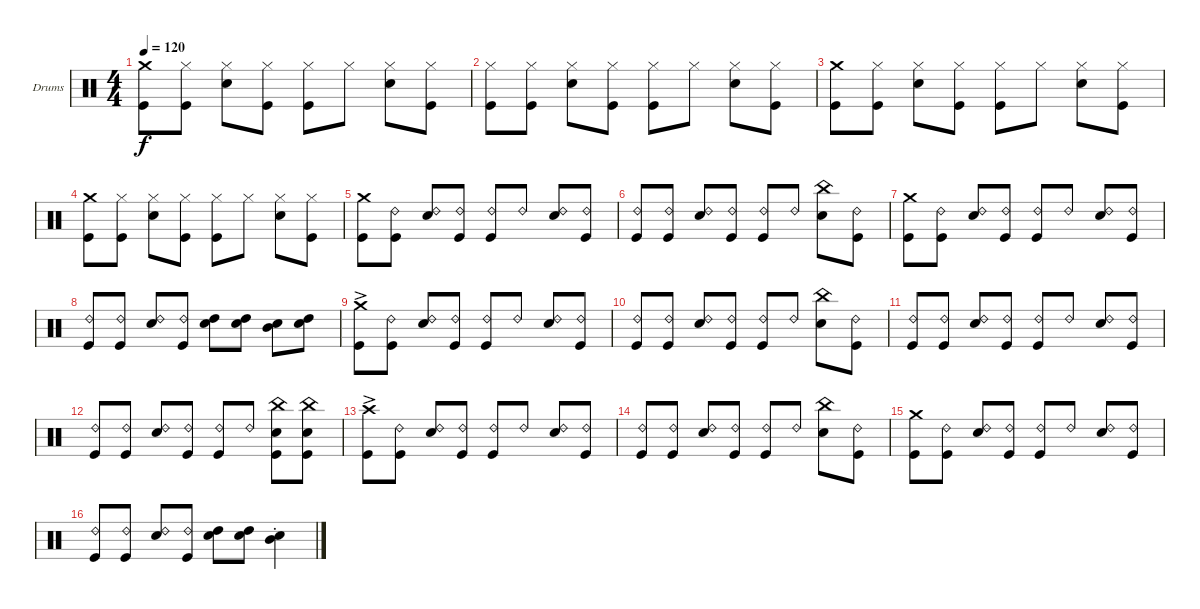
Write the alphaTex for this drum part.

\defaultSystemsLayout 4
\bracketExtendMode groupsimilarinstruments
\firstSystemTrackNameOrientation horizontal
\otherSystemsTrackNameOrientation horizontal
\track ("Stefan Schwarzmann" "Drums") {instrument percussion}
\staff {score}
\articulation defaults
\ts (4 4)
\tempo 120
\clef neutral
\ks c
("Crash medium (hit)" "Kick (hit)").8{dy f} ("Hi-Hat (closed)" "Kick (hit)").8 ("Hi-Hat (closed)" "Snare (hit) 2").8 ("Hi-Hat (closed)" "Kick (hit)").8 ("Hi-Hat (closed)" "Kick (hit)").8 "Hi-Hat (closed)".8 ("Hi-Hat (closed)" "Snare (hit) 2").8 ("Hi-Hat (closed)" "Kick (hit)").8 |
("Hi-Hat (closed)" "Kick (hit)").8 ("Hi-Hat (closed)" "Kick (hit)").8 ("Hi-Hat (closed)" "Snare (hit) 2").8 ("Hi-Hat (closed)" "Kick (hit)").8 ("Hi-Hat (closed)" "Kick (hit)").8 "Hi-Hat (closed)".8 ("Hi-Hat (closed)" "Snare (hit) 2").8 ("Hi-Hat (closed)" "Kick (hit)").8 |
("Crash medium (hit)" "Kick (hit)").8 ("Hi-Hat (closed)" "Kick (hit)").8 ("Hi-Hat (closed)" "Snare (hit) 2").8 ("Hi-Hat (closed)" "Kick (hit)").8 ("Hi-Hat (closed)" "Kick (hit)").8 "Hi-Hat (closed)".8 ("Hi-Hat (closed)" "Snare (hit) 2").8 ("Hi-Hat (closed)" "Kick (hit)").8 |
("Crash medium (hit)" "Kick (hit)").8 ("Hi-Hat (closed)" "Kick (hit)").8 ("Hi-Hat (closed)" "Snare (hit) 2").8 ("Hi-Hat (closed)" "Kick (hit)").8 ("Hi-Hat (closed)" "Kick (hit)").8 "Hi-Hat (closed)".8 ("Hi-Hat (closed)" "Snare (hit) 2").8 ("Hi-Hat (closed)" "Kick (hit)").8 |
("Kick (hit)" "Crash medium (hit)").8 ("Ride (bell) 2" "Kick (hit)").8 ("Ride (bell) 2" "Snare (hit) 2").8 ("Ride (bell) 2" "Kick (hit)").8 ("Ride (bell) 2" "Kick (hit)").8 "Ride (bell) 2".8 ("Ride (bell) 2" "Snare (hit) 2").8 ("Ride (bell) 2" "Kick (hit)").8 |
("Ride (bell) 2" "Kick (hit)").8 ("Ride (bell) 2" "Kick (hit)").8 ("Ride (bell) 2" "Snare (hit) 2").8 ("Ride (bell) 2" "Kick (hit)").8 ("Ride (bell) 2" "Kick (hit)").8 "Ride (bell) 2".8 ("China (hit)" "Snare (hit) 2").8 ("Ride (bell) 2" "Kick (hit)").8 |
("Crash medium (hit)" "Kick (hit)").8 ("Ride (bell) 2" "Kick (hit)").8 ("Ride (bell) 2" "Snare (hit) 2").8 ("Ride (bell) 2" "Kick (hit)").8 ("Ride (bell) 2" "Kick (hit)").8 "Ride (bell) 2".8 ("Ride (bell) 2" "Snare (hit) 2").8 ("Ride (bell) 2" "Kick (hit)").8 |
("Ride (bell) 2" "Kick (hit)").8 ("Ride (bell) 2" "Kick (hit)").8 ("Ride (bell) 2" "Snare (hit) 2").8 ("Ride (bell) 2" "Kick (hit)").8 ("High Tom (hit)" "Snare (hit) 2").8 ("High Tom (hit)" "Snare (hit) 2").8 ("Mid Tom (hit)" "Snare (hit) 2").8 ("High Tom (hit)" "Snare (hit) 2").8 |
("Crash medium (hit)"{ac} "Kick (hit)").8 ("Ride (bell) 2" "Kick (hit)").8 ("Ride (bell) 2" "Snare (hit) 2").8 ("Ride (bell) 2" "Kick (hit)").8 ("Ride (bell) 2" "Kick (hit)").8 "Ride (bell) 2".8 ("Ride (bell) 2" "Snare (hit) 2").8 ("Ride (bell) 2" "Kick (hit)").8 |
("Ride (bell) 2" "Kick (hit)").8 ("Ride (bell) 2" "Kick (hit)").8 ("Ride (bell) 2" "Snare (hit) 2").8 ("Ride (bell) 2" "Kick (hit)").8 ("Ride (bell) 2" "Kick (hit)").8 "Ride (bell) 2".8 ("China (hit)" "Snare (hit) 2").8 ("Ride (bell) 2" "Kick (hit)").8 |
("Ride (bell) 2" "Kick (hit)").8 ("Ride (bell) 2" "Kick (hit)").8 ("Ride (bell) 2" "Snare (hit) 2").8 ("Ride (bell) 2" "Kick (hit)").8 ("Ride (bell) 2" "Kick (hit)").8 "Ride (bell) 2".8 ("Ride (bell) 2" "Snare (hit) 2").8 ("Ride (bell) 2" "Kick (hit)").8 |
("Ride (bell) 2" "Kick (hit)").8 ("Ride (bell) 2" "Kick (hit)").8 ("Ride (bell) 2" "Snare (hit) 2").8 ("Ride (bell) 2" "Kick (hit)").8 ("Ride (bell) 2" "Kick (hit)").8 "Ride (bell) 2".8 ("China (hit)" "Snare (hit) 2" "Kick (hit)").8 ("China (hit)" "Kick (hit)" "Snare (hit) 2").8 |
("Kick (hit)" "Crash high (hit)"{ac}).8 ("Ride (bell) 2" "Kick (hit)").8 ("Ride (bell) 2" "Snare (hit) 2").8 ("Ride (bell) 2" "Kick (hit)").8 ("Ride (bell) 2" "Kick (hit)").8 "Ride (bell) 2".8 ("Ride (bell) 2" "Snare (hit) 2").8 ("Ride (bell) 2" "Kick (hit)").8 |
("Ride (bell) 2" "Kick (hit)").8 ("Ride (bell) 2" "Kick (hit)").8 ("Ride (bell) 2" "Snare (hit) 2").8 ("Ride (bell) 2" "Kick (hit)").8 ("Ride (bell) 2" "Kick (hit)").8 "Ride (bell) 2".8 ("China (hit)" "Snare (hit) 2").8 ("Ride (bell) 2" "Kick (hit)").8 |
("Crash medium (hit)" "Kick (hit)").8 ("Ride (bell) 2" "Kick (hit)").8 ("Ride (bell) 2" "Snare (hit) 2").8 ("Ride (bell) 2" "Kick (hit)").8 ("Ride (bell) 2" "Kick (hit)").8 "Ride (bell) 2".8 ("Ride (bell) 2" "Snare (hit) 2").8 ("Ride (bell) 2" "Kick (hit)").8 |
("Ride (bell) 2" "Kick (hit)").8 ("Ride (bell) 2" "Kick (hit)").8 ("Ride (bell) 2" "Snare (hit) 2").8 ("Ride (bell) 2" "Kick (hit)").8 ("High Tom (hit)" "Snare (hit) 2").8 ("High Tom (hit)" "Snare (hit) 2").8 ("Mid Tom (hit)"{st} "Snare (hit) 2"{st}).4
